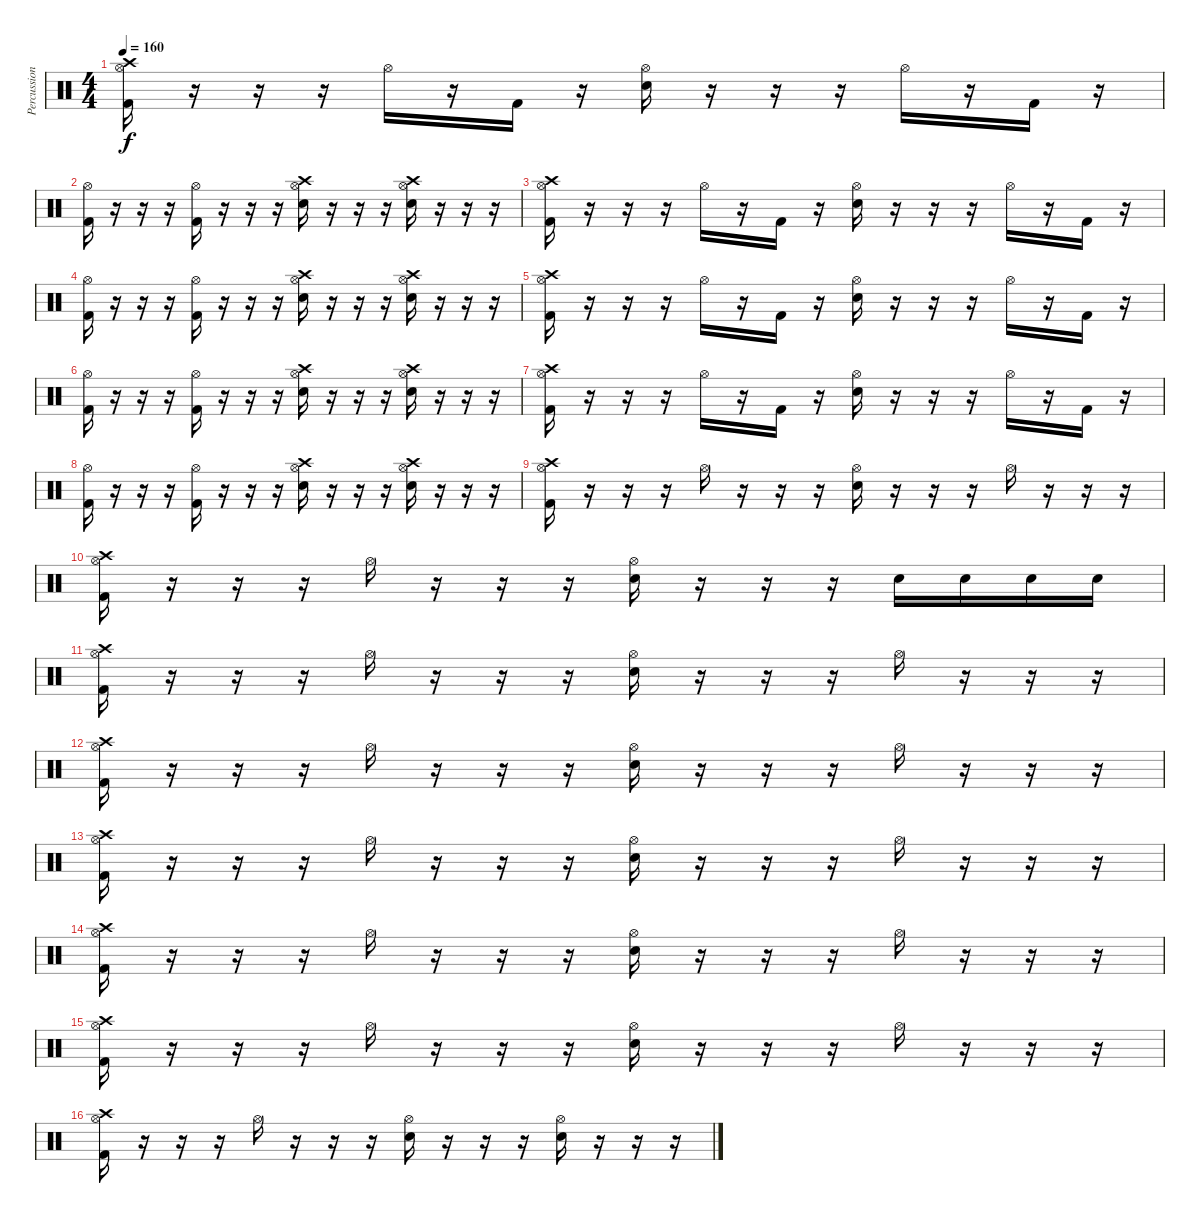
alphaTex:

\track ("Percussion" "Percussion") {instrument percussion}
\staff {score}
\articulation defaults
\ts (4 4)
\tempo 160
\clef neutral
\ks c
("Kick (hit) 2" "Hi-Hat (open)" "Crash high (hit)").16{dy f} r.16 r.16 r.16 "Hi-Hat (open)".16 r.16 "Kick (hit) 2".16 r.16 ("Electric Snare (hit)" "Hi-Hat (open)").16 r.16 r.16 r.16 "Hi-Hat (open)".16 r.16 "Kick (hit) 2".16 r.16 |
("Kick (hit) 2" "Hi-Hat (open)").16 r.16 r.16 r.16 ("Kick (hit) 2" "Hi-Hat (open)").16 r.16 r.16 r.16 ("Electric Snare (hit)" "Hi-Hat (open)" "Crash high (hit)").16 r.16 r.16 r.16 ("Electric Snare (hit)" "Hi-Hat (open)" "Crash high (hit)").16 r.16 r.16 r.16 |
("Kick (hit) 2" "Hi-Hat (open)" "Crash high (hit)").16 r.16 r.16 r.16 "Hi-Hat (open)".16 r.16 "Kick (hit) 2".16 r.16 ("Electric Snare (hit)" "Hi-Hat (open)").16 r.16 r.16 r.16 "Hi-Hat (open)".16 r.16 "Kick (hit) 2".16 r.16 |
("Kick (hit) 2" "Hi-Hat (open)").16 r.16 r.16 r.16 ("Kick (hit) 2" "Hi-Hat (open)").16 r.16 r.16 r.16 ("Electric Snare (hit)" "Hi-Hat (open)" "Crash high (hit)").16 r.16 r.16 r.16 ("Electric Snare (hit)" "Hi-Hat (open)" "Crash high (hit)").16 r.16 r.16 r.16 |
("Kick (hit) 2" "Hi-Hat (open)" "Crash high (hit)").16 r.16 r.16 r.16 "Hi-Hat (open)".16 r.16 "Kick (hit) 2".16 r.16 ("Electric Snare (hit)" "Hi-Hat (open)").16 r.16 r.16 r.16 "Hi-Hat (open)".16 r.16 "Kick (hit) 2".16 r.16 |
("Kick (hit) 2" "Hi-Hat (open)").16 r.16 r.16 r.16 ("Kick (hit) 2" "Hi-Hat (open)").16 r.16 r.16 r.16 ("Electric Snare (hit)" "Hi-Hat (open)" "Crash high (hit)").16 r.16 r.16 r.16 ("Electric Snare (hit)" "Hi-Hat (open)" "Crash high (hit)").16 r.16 r.16 r.16 |
("Kick (hit) 2" "Hi-Hat (open)" "Crash high (hit)").16 r.16 r.16 r.16 "Hi-Hat (open)".16 r.16 "Kick (hit) 2".16 r.16 ("Electric Snare (hit)" "Hi-Hat (open)").16 r.16 r.16 r.16 "Hi-Hat (open)".16 r.16 "Kick (hit) 2".16 r.16 |
("Kick (hit) 2" "Hi-Hat (open)").16 r.16 r.16 r.16 ("Kick (hit) 2" "Hi-Hat (open)").16 r.16 r.16 r.16 ("Electric Snare (hit)" "Hi-Hat (open)" "Crash high (hit)").16 r.16 r.16 r.16 ("Electric Snare (hit)" "Hi-Hat (open)" "Crash high (hit)").16 r.16 r.16 r.16 |
("Kick (hit) 2" "Hi-Hat (open)" "Crash high (hit)").16 r.16 r.16 r.16 "Hi-Hat (open)".16 r.16 r.16 r.16 ("Electric Snare (hit)" "Hi-Hat (open)").16 r.16 r.16 r.16 "Hi-Hat (open)".16 r.16 r.16 r.16 |
("Kick (hit) 2" "Hi-Hat (open)" "Crash high (hit)").16 r.16 r.16 r.16 "Hi-Hat (open)".16 r.16 r.16 r.16 ("Electric Snare (hit)" "Hi-Hat (open)").16 r.16 r.16 r.16 "Electric Snare (hit)".16 "Electric Snare (hit)".16 "Electric Snare (hit)".16 "Electric Snare (hit)".16 |
("Kick (hit) 2" "Hi-Hat (open)" "Crash high (hit)").16 r.16 r.16 r.16 "Hi-Hat (open)".16 r.16 r.16 r.16 ("Electric Snare (hit)" "Hi-Hat (open)").16 r.16 r.16 r.16 "Hi-Hat (open)".16 r.16 r.16 r.16 |
("Kick (hit) 2" "Hi-Hat (open)" "Crash high (hit)").16 r.16 r.16 r.16 "Hi-Hat (open)".16 r.16 r.16 r.16 ("Electric Snare (hit)" "Hi-Hat (open)").16 r.16 r.16 r.16 "Hi-Hat (open)".16 r.16 r.16 r.16 |
("Kick (hit) 2" "Hi-Hat (open)" "Crash high (hit)").16 r.16 r.16 r.16 "Hi-Hat (open)".16 r.16 r.16 r.16 ("Electric Snare (hit)" "Hi-Hat (open)").16 r.16 r.16 r.16 "Hi-Hat (open)".16 r.16 r.16 r.16 |
("Kick (hit) 2" "Hi-Hat (open)" "Crash high (hit)").16 r.16 r.16 r.16 "Hi-Hat (open)".16 r.16 r.16 r.16 ("Electric Snare (hit)" "Hi-Hat (open)").16 r.16 r.16 r.16 "Hi-Hat (open)".16 r.16 r.16 r.16 |
("Kick (hit) 2" "Hi-Hat (open)" "Crash high (hit)").16 r.16 r.16 r.16 "Hi-Hat (open)".16 r.16 r.16 r.16 ("Electric Snare (hit)" "Hi-Hat (open)").16 r.16 r.16 r.16 "Hi-Hat (open)".16 r.16 r.16 r.16 |
("Kick (hit) 2" "Hi-Hat (open)" "Crash high (hit)").16 r.16 r.16 r.16 "Hi-Hat (open)".16 r.16 r.16 r.16 ("Electric Snare (hit)" "Hi-Hat (open)").16 r.16 r.16 r.16 ("Electric Snare (hit)" "Hi-Hat (open)").16 r.16 r.16 r.16
